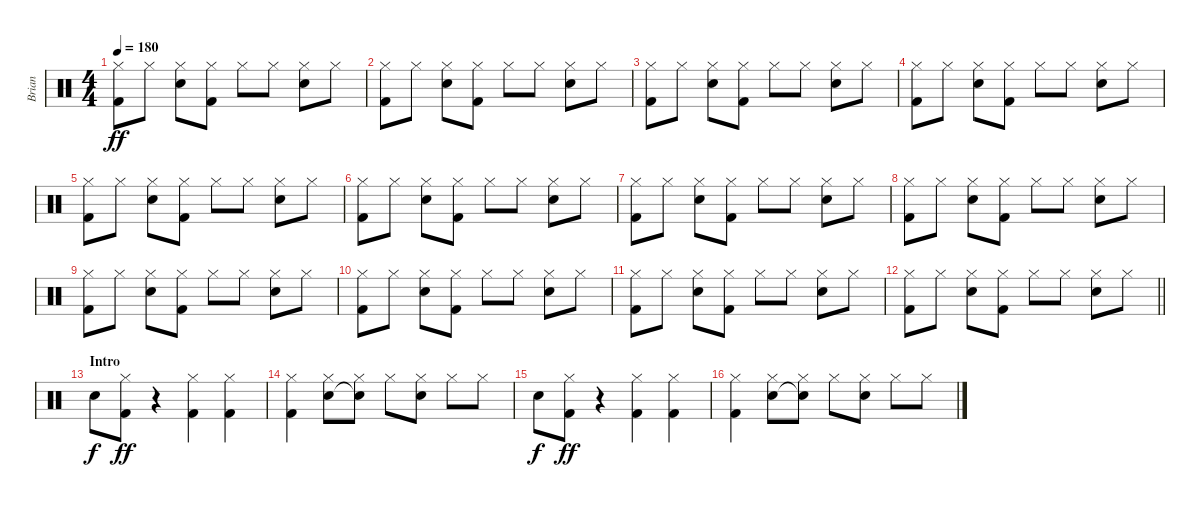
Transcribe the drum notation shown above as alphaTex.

\track ("Brian" "Brian") {instrument percussion}
\staff {score}
\articulation defaults
\ts (4 4)
\tempo 180
\clef neutral
\ks c
("Hi-Hat (closed)" "Kick (hit) 2").8{dy ff} "Hi-Hat (closed)".8 ("Hi-Hat (closed)" "Snare (hit) 2").8 ("Hi-Hat (closed)" "Kick (hit) 2").8 "Hi-Hat (closed)".8 "Hi-Hat (closed)".8 ("Hi-Hat (closed)" "Snare (hit) 2").8 "Hi-Hat (closed)".8 |
("Hi-Hat (closed)" "Kick (hit) 2").8 "Hi-Hat (closed)".8 ("Hi-Hat (closed)" "Snare (hit) 2").8 ("Hi-Hat (closed)" "Kick (hit) 2").8 "Hi-Hat (closed)".8 "Hi-Hat (closed)".8 ("Hi-Hat (closed)" "Snare (hit) 2").8 "Hi-Hat (closed)".8 |
("Hi-Hat (closed)" "Kick (hit) 2").8 "Hi-Hat (closed)".8 ("Hi-Hat (closed)" "Snare (hit) 2").8 ("Hi-Hat (closed)" "Kick (hit) 2").8 "Hi-Hat (closed)".8 "Hi-Hat (closed)".8 ("Hi-Hat (closed)" "Snare (hit) 2").8 "Hi-Hat (closed)".8 |
("Hi-Hat (closed)" "Kick (hit) 2").8 "Hi-Hat (closed)".8 ("Hi-Hat (closed)" "Snare (hit) 2").8 ("Hi-Hat (closed)" "Kick (hit) 2").8 "Hi-Hat (closed)".8 "Hi-Hat (closed)".8 ("Hi-Hat (closed)" "Snare (hit) 2").8 "Hi-Hat (closed)".8 |
("Hi-Hat (closed)" "Kick (hit) 2").8 "Hi-Hat (closed)".8 ("Hi-Hat (closed)" "Snare (hit) 2").8 ("Hi-Hat (closed)" "Kick (hit) 2").8 "Hi-Hat (closed)".8 "Hi-Hat (closed)".8 ("Hi-Hat (closed)" "Snare (hit) 2").8 "Hi-Hat (closed)".8 |
("Hi-Hat (closed)" "Kick (hit) 2").8 "Hi-Hat (closed)".8 ("Hi-Hat (closed)" "Snare (hit) 2").8 ("Hi-Hat (closed)" "Kick (hit) 2").8 "Hi-Hat (closed)".8 "Hi-Hat (closed)".8 ("Hi-Hat (closed)" "Snare (hit) 2").8 "Hi-Hat (closed)".8 |
("Hi-Hat (closed)" "Kick (hit) 2").8 "Hi-Hat (closed)".8 ("Hi-Hat (closed)" "Snare (hit) 2").8 ("Hi-Hat (closed)" "Kick (hit) 2").8 "Hi-Hat (closed)".8 "Hi-Hat (closed)".8 ("Hi-Hat (closed)" "Snare (hit) 2").8 "Hi-Hat (closed)".8 |
("Hi-Hat (closed)" "Kick (hit) 2").8 "Hi-Hat (closed)".8 ("Hi-Hat (closed)" "Snare (hit) 2").8 ("Hi-Hat (closed)" "Kick (hit) 2").8 "Hi-Hat (closed)".8 "Hi-Hat (closed)".8 ("Hi-Hat (closed)" "Snare (hit) 2").8 "Hi-Hat (closed)".8 |
("Hi-Hat (closed)" "Kick (hit) 2").8 "Hi-Hat (closed)".8 ("Hi-Hat (closed)" "Snare (hit) 2").8 ("Hi-Hat (closed)" "Kick (hit) 2").8 "Hi-Hat (closed)".8 "Hi-Hat (closed)".8 ("Hi-Hat (closed)" "Snare (hit) 2").8 "Hi-Hat (closed)".8 |
("Hi-Hat (closed)" "Kick (hit) 2").8 "Hi-Hat (closed)".8 ("Hi-Hat (closed)" "Snare (hit) 2").8 ("Hi-Hat (closed)" "Kick (hit) 2").8 "Hi-Hat (closed)".8 "Hi-Hat (closed)".8 ("Hi-Hat (closed)" "Snare (hit) 2").8 "Hi-Hat (closed)".8 |
("Hi-Hat (closed)" "Kick (hit) 2").8 "Hi-Hat (closed)".8 ("Hi-Hat (closed)" "Snare (hit) 2").8 ("Hi-Hat (closed)" "Kick (hit) 2").8 "Hi-Hat (closed)".8 "Hi-Hat (closed)".8 ("Hi-Hat (closed)" "Snare (hit) 2").8 "Hi-Hat (closed)".8 |
\barLineRight lightlight
("Hi-Hat (closed)" "Kick (hit) 2").8 "Hi-Hat (closed)".8 ("Hi-Hat (closed)" "Snare (hit) 2").8 ("Hi-Hat (closed)" "Kick (hit) 2").8 "Hi-Hat (closed)".8 "Hi-Hat (closed)".8 ("Hi-Hat (closed)" "Snare (hit) 2").8 "Hi-Hat (closed)".8 |
\section ("" "Intro")
"Snare (hit) 2".8{dy f} ("Hi-Hat (closed)" "Kick (hit) 2").8{dy ff} r.4 ("Hi-Hat (closed)" "Kick (hit) 2").4 ("Hi-Hat (closed)" "Kick (hit) 2").4 |
("Hi-Hat (closed)" "Kick (hit) 2").4 ("Hi-Hat (closed)" "Snare (hit) 2").8 ("Hi-Hat (closed)" "Electric Snare (hit)"{t}).8 "Hi-Hat (closed)".8 ("Hi-Hat (closed)" "Snare (hit) 2").8 "Hi-Hat (closed)".8 "Hi-Hat (closed)".8 |
"Snare (hit) 2".8{dy f} ("Hi-Hat (closed)" "Kick (hit) 2").8{dy ff} r.4 ("Hi-Hat (closed)" "Kick (hit) 2").4 ("Hi-Hat (closed)" "Kick (hit) 2").4 |
("Hi-Hat (closed)" "Kick (hit) 2").4 ("Hi-Hat (closed)" "Snare (hit) 2").8 ("Hi-Hat (closed)" "Electric Snare (hit)"{t}).8 "Hi-Hat (closed)".8 ("Hi-Hat (closed)" "Snare (hit) 2").8 "Hi-Hat (closed)".8 "Hi-Hat (closed)".8
